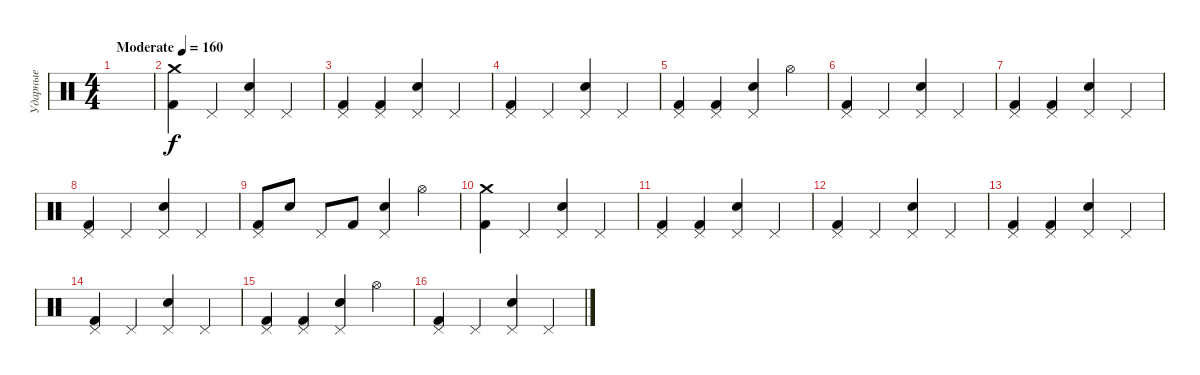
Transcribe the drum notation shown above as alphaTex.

\track ("Ударные" "Ударные") {instrument percussion}
\staff {score}
\articulation defaults
\ts (4 4)
\tempo (160 "Moderate")
\clef neutral
\ks c
|
("Crash medium (hit)" "Kick (hit) 2").4 "Pedal Hi-Hat (hit)".4 ("Snare (hit) 2" "Pedal Hi-Hat (hit)").4 "Pedal Hi-Hat (hit)".4 |
("Pedal Hi-Hat (hit)" "Kick (hit) 2").4 ("Pedal Hi-Hat (hit)" "Kick (hit) 2").4 ("Snare (hit) 2" "Pedal Hi-Hat (hit)").4 "Pedal Hi-Hat (hit)".4 |
("Pedal Hi-Hat (hit)" "Kick (hit) 2").4 "Pedal Hi-Hat (hit)".4 ("Snare (hit) 2" "Pedal Hi-Hat (hit)").4 "Pedal Hi-Hat (hit)".4 |
("Pedal Hi-Hat (hit)" "Kick (hit) 2").4 ("Pedal Hi-Hat (hit)" "Kick (hit) 2").4 ("Snare (hit) 2" "Pedal Hi-Hat (hit)").4 "Hi-Hat (open)".4 |
("Pedal Hi-Hat (hit)" "Kick (hit) 2").4 "Pedal Hi-Hat (hit)".4 ("Snare (hit) 2" "Pedal Hi-Hat (hit)").4 "Pedal Hi-Hat (hit)".4 |
("Pedal Hi-Hat (hit)" "Kick (hit) 2").4 ("Pedal Hi-Hat (hit)" "Kick (hit) 2").4 ("Snare (hit) 2" "Pedal Hi-Hat (hit)").4 "Pedal Hi-Hat (hit)".4 |
("Pedal Hi-Hat (hit)" "Kick (hit) 2").4 "Pedal Hi-Hat (hit)".4 ("Snare (hit) 2" "Pedal Hi-Hat (hit)").4 "Pedal Hi-Hat (hit)".4 |
("Pedal Hi-Hat (hit)" "Kick (hit) 2").8 "Snare (hit) 2".8 "Pedal Hi-Hat (hit)".8 "Kick (hit) 2".8 ("Snare (hit) 2" "Pedal Hi-Hat (hit)").4 "Hi-Hat (open)".4 |
("Crash medium (hit)" "Kick (hit) 2").4 "Pedal Hi-Hat (hit)".4 ("Snare (hit) 2" "Pedal Hi-Hat (hit)").4 "Pedal Hi-Hat (hit)".4 |
("Pedal Hi-Hat (hit)" "Kick (hit) 2").4 ("Pedal Hi-Hat (hit)" "Kick (hit) 2").4 ("Snare (hit) 2" "Pedal Hi-Hat (hit)").4 "Pedal Hi-Hat (hit)".4 |
("Pedal Hi-Hat (hit)" "Kick (hit) 2").4 "Pedal Hi-Hat (hit)".4 ("Snare (hit) 2" "Pedal Hi-Hat (hit)").4 "Pedal Hi-Hat (hit)".4 |
("Pedal Hi-Hat (hit)" "Kick (hit) 2").4 ("Pedal Hi-Hat (hit)" "Kick (hit) 2").4 ("Snare (hit) 2" "Pedal Hi-Hat (hit)").4 "Pedal Hi-Hat (hit)".4 |
("Pedal Hi-Hat (hit)" "Kick (hit) 2").4 "Pedal Hi-Hat (hit)".4 ("Snare (hit) 2" "Pedal Hi-Hat (hit)").4 "Pedal Hi-Hat (hit)".4 |
("Pedal Hi-Hat (hit)" "Kick (hit) 2").4 ("Pedal Hi-Hat (hit)" "Kick (hit) 2").4 ("Snare (hit) 2" "Pedal Hi-Hat (hit)").4 "Hi-Hat (open)".4 |
("Pedal Hi-Hat (hit)" "Kick (hit) 2").4 "Pedal Hi-Hat (hit)".4 ("Snare (hit) 2" "Pedal Hi-Hat (hit)").4 "Pedal Hi-Hat (hit)".4
